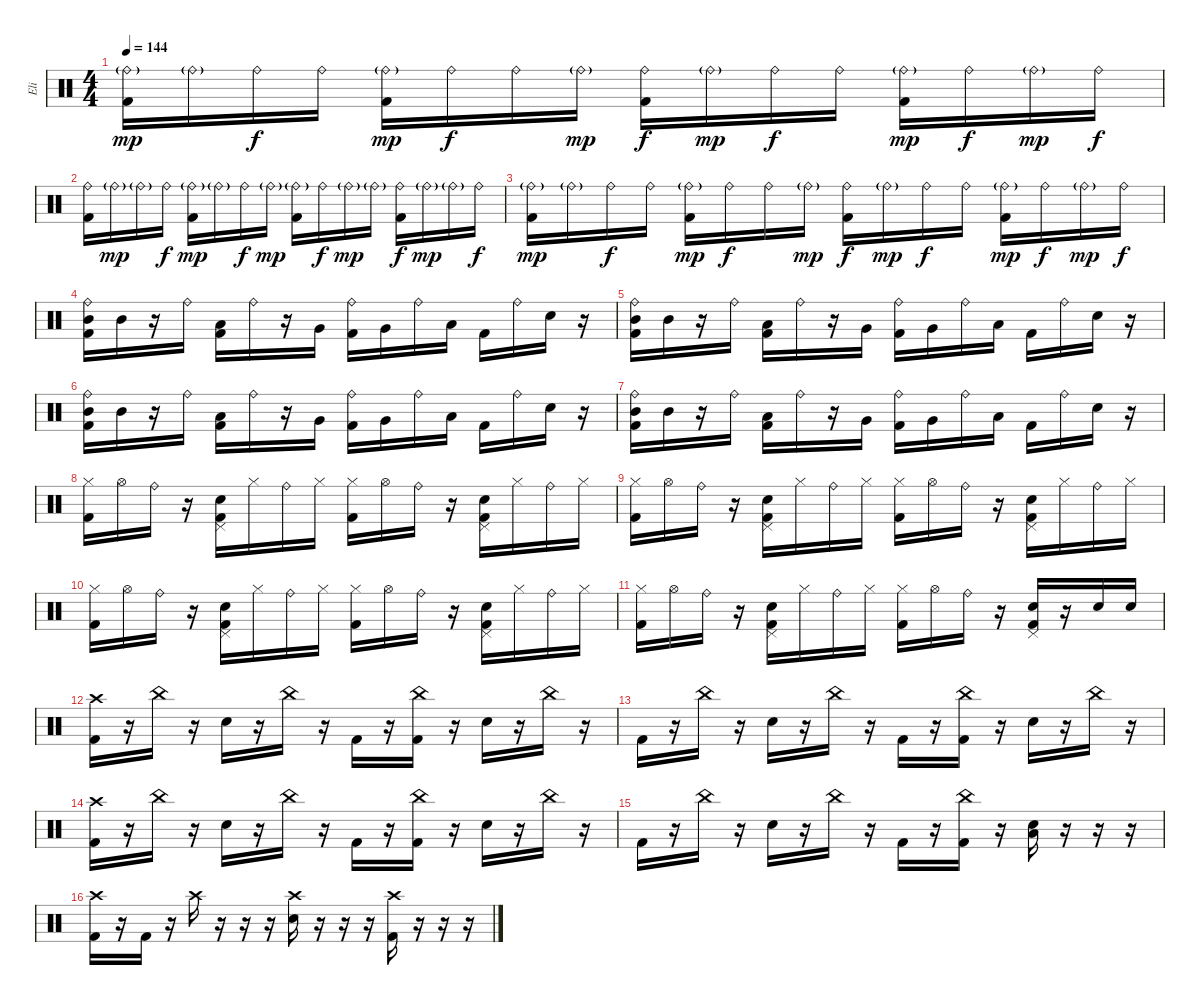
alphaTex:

\track ("Eli" "Eli") {instrument percussion}
\staff {score}
\articulation defaults
\ts (4 4)
\tempo 144
\clef neutral
\ks c
("Ride (bell)"{g} "Kick (hit) 2").16{dy mp} "Ride (bell)"{g}.16 "Ride (bell)".16{dy f} "Ride (bell)".16 ("Ride (bell)"{g} "Kick (hit) 2").16{dy mp} "Ride (bell)".16{dy f} "Ride (bell)".16 "Ride (bell)"{g}.16{dy mp} ("Ride (bell)" "Kick (hit) 2").16{dy f} "Ride (bell)"{g}.16{dy mp} "Ride (bell)".16{dy f} "Ride (bell)".16 ("Ride (bell)"{g} "Kick (hit) 2").16{dy mp} "Ride (bell)".16{dy f} "Ride (bell)"{g}.16{dy mp} "Ride (bell)".16{dy f} |
("Ride (bell)" "Kick (hit) 2").16 "Ride (bell)"{g}.16{dy mp} "Ride (bell)"{g}.16 "Ride (bell)".16{dy f} ("Ride (bell)"{g} "Kick (hit) 2").16{dy mp} "Ride (bell)"{g}.16 "Ride (bell)".16{dy f} "Ride (bell)"{g}.16{dy mp} ("Ride (bell)"{g} "Kick (hit) 2").16 "Ride (bell)".16{dy f} "Ride (bell)"{g}.16{dy mp} "Ride (bell)"{g}.16 ("Ride (bell)" "Kick (hit) 2").16{dy f} "Ride (bell)"{g}.16{dy mp} "Ride (bell)"{g}.16 "Ride (bell)".16{dy f} |
("Ride (bell)"{g} "Kick (hit) 2").16{dy mp} "Ride (bell)"{g}.16 "Ride (bell)".16{dy f} "Ride (bell)".16 ("Ride (bell)"{g} "Kick (hit) 2").16{dy mp} "Ride (bell)".16{dy f} "Ride (bell)".16 "Ride (bell)"{g}.16{dy mp} ("Ride (bell)" "Kick (hit) 2").16{dy f} "Ride (bell)"{g}.16{dy mp} "Ride (bell)".16{dy f} "Ride (bell)".16 ("Ride (bell)"{g} "Kick (hit) 2").16{dy mp} "Ride (bell)".16{dy f} "Ride (bell)"{g}.16{dy mp} "Ride (bell)".16{dy f} |
("Ride (bell)" "Mid Tom (hit)" "Kick (hit) 2").16 "Mid Tom (hit)".16 r.16 "Ride (bell)".16 ("Low Tom (hit)" "Kick (hit) 2").16 "Ride (bell)".16 r.16 "Very Low Tom (hit)".16 ("Ride (bell)" "Kick (hit) 2").16 "Very Low Tom (hit)".16 "Ride (bell)".16 "Low Floor Tom (hit)".16 "Kick (hit) 2".16 "Ride (bell)".16 "Snare (hit) 2".16 r.16 |
("Ride (bell)" "Mid Tom (hit)" "Kick (hit) 2").16 "Mid Tom (hit)".16 r.16 "Ride (bell)".16 ("Low Tom (hit)" "Kick (hit) 2").16 "Ride (bell)".16 r.16 "Very Low Tom (hit)".16 ("Ride (bell)" "Kick (hit) 2").16 "Very Low Tom (hit)".16 "Ride (bell)".16 "Low Floor Tom (hit)".16 "Kick (hit) 2".16 "Ride (bell)".16 "Snare (hit) 2".16 r.16 |
("Ride (bell)" "Mid Tom (hit)" "Kick (hit) 2").16 "Mid Tom (hit)".16 r.16 "Ride (bell)".16 ("Low Tom (hit)" "Kick (hit) 2").16 "Ride (bell)".16 r.16 "Very Low Tom (hit)".16 ("Ride (bell)" "Kick (hit) 2").16 "Very Low Tom (hit)".16 "Ride (bell)".16 "Low Floor Tom (hit)".16 "Kick (hit) 2".16 "Ride (bell)".16 "Snare (hit) 2".16 r.16 |
("Ride (bell)" "Mid Tom (hit)" "Kick (hit) 2").16 "Mid Tom (hit)".16 r.16 "Ride (bell)".16 ("Low Tom (hit)" "Kick (hit) 2").16 "Ride (bell)".16 r.16 "Very Low Tom (hit)".16 ("Ride (bell)" "Kick (hit) 2").16 "Very Low Tom (hit)".16 "Ride (bell)".16 "Low Floor Tom (hit)".16 "Kick (hit) 2".16 "Ride (bell)".16 "Snare (hit) 2".16 r.16 |
("Hi-Hat (closed)" "Kick (hit) 2").16 "Hi-Hat (open)".16 "Ride (bell)".16 r.16 ("Snare (hit) 2" "Pedal Hi-Hat (hit)" "Kick (hit) 2").16 "Hi-Hat (closed)".16 "Ride (bell)".16 "Hi-Hat (closed)".16 ("Hi-Hat (closed)" "Kick (hit) 2").16 "Hi-Hat (open)".16 "Ride (bell)".16 r.16 ("Snare (hit) 2" "Pedal Hi-Hat (hit)" "Kick (hit) 2").16 "Hi-Hat (closed)".16 "Ride (bell)".16 "Hi-Hat (closed)".16 |
("Hi-Hat (closed)" "Kick (hit) 2").16 "Hi-Hat (open)".16 "Ride (bell)".16 r.16 ("Snare (hit) 2" "Pedal Hi-Hat (hit)" "Kick (hit) 2").16 "Hi-Hat (closed)".16 "Ride (bell)".16 "Hi-Hat (closed)".16 ("Hi-Hat (closed)" "Kick (hit) 2").16 "Hi-Hat (open)".16 "Ride (bell)".16 r.16 ("Snare (hit) 2" "Pedal Hi-Hat (hit)" "Kick (hit) 2").16 "Hi-Hat (closed)".16 "Ride (bell)".16 "Hi-Hat (closed)".16 |
("Hi-Hat (closed)" "Kick (hit) 2").16 "Hi-Hat (open)".16 "Ride (bell)".16 r.16 ("Snare (hit) 2" "Pedal Hi-Hat (hit)" "Kick (hit) 2").16 "Hi-Hat (closed)".16 "Ride (bell)".16 "Hi-Hat (closed)".16 ("Hi-Hat (closed)" "Kick (hit) 2").16 "Hi-Hat (open)".16 "Ride (bell)".16 r.16 ("Snare (hit) 2" "Pedal Hi-Hat (hit)" "Kick (hit) 2").16 "Hi-Hat (closed)".16 "Ride (bell)".16 "Hi-Hat (closed)".16 |
("Hi-Hat (closed)" "Kick (hit) 2").16 "Hi-Hat (open)".16 "Ride (bell)".16 r.16 ("Snare (hit) 2" "Pedal Hi-Hat (hit)" "Kick (hit) 2").16 "Hi-Hat (closed)".16 "Ride (bell)".16 "Hi-Hat (closed)".16 ("Hi-Hat (closed)" "Kick (hit) 2").16 "Hi-Hat (open)".16 "Ride (bell)".16 r.16 ("Snare (hit) 2" "Pedal Hi-Hat (hit)" "Kick (hit) 2").16 r.16 "Snare (hit) 2".16 "Snare (hit) 2".16 |
("Crash high (hit)" "Kick (hit) 2").16 r.16 "China (hit)".16 r.16 "Snare (hit) 2".16 r.16 "China (hit)".16 r.16 "Kick (hit) 2".16 r.16 ("China (hit)" "Kick (hit) 2").16 r.16 "Snare (hit) 2".16 r.16 "China (hit)".16 r.16 |
"Kick (hit) 2".16 r.16 "China (hit)".16 r.16 "Snare (hit) 2".16 r.16 "China (hit)".16 r.16 "Kick (hit) 2".16 r.16 ("China (hit)" "Kick (hit) 2").16 r.16 "Snare (hit) 2".16 r.16 "China (hit)".16 r.16 |
("Crash high (hit)" "Kick (hit) 2").16 r.16 "China (hit)".16 r.16 "Snare (hit) 2".16 r.16 "China (hit)".16 r.16 "Kick (hit) 2".16 r.16 ("China (hit)" "Kick (hit) 2").16 r.16 "Snare (hit) 2".16 r.16 "China (hit)".16 r.16 |
"Kick (hit) 2".16 r.16 "China (hit)".16 r.16 "Snare (hit) 2".16 r.16 "China (hit)".16 r.16 "Kick (hit) 2".16 r.16 ("China (hit)" "Kick (hit) 2").16 r.16 ("Snare (hit) 2" "Low Floor Tom (hit)").16 r.16 r.16 r.16 |
("Crash high (hit)" "Kick (hit) 2").16 r.16 "Kick (hit) 2".16 r.16 "Crash high (hit)".16 r.16 r.16 r.16 ("Crash high (hit)" "Snare (hit) 2").16 r.16 r.16 r.16 ("Crash high (hit)" "Kick (hit) 2").16 r.16 r.16 r.16
